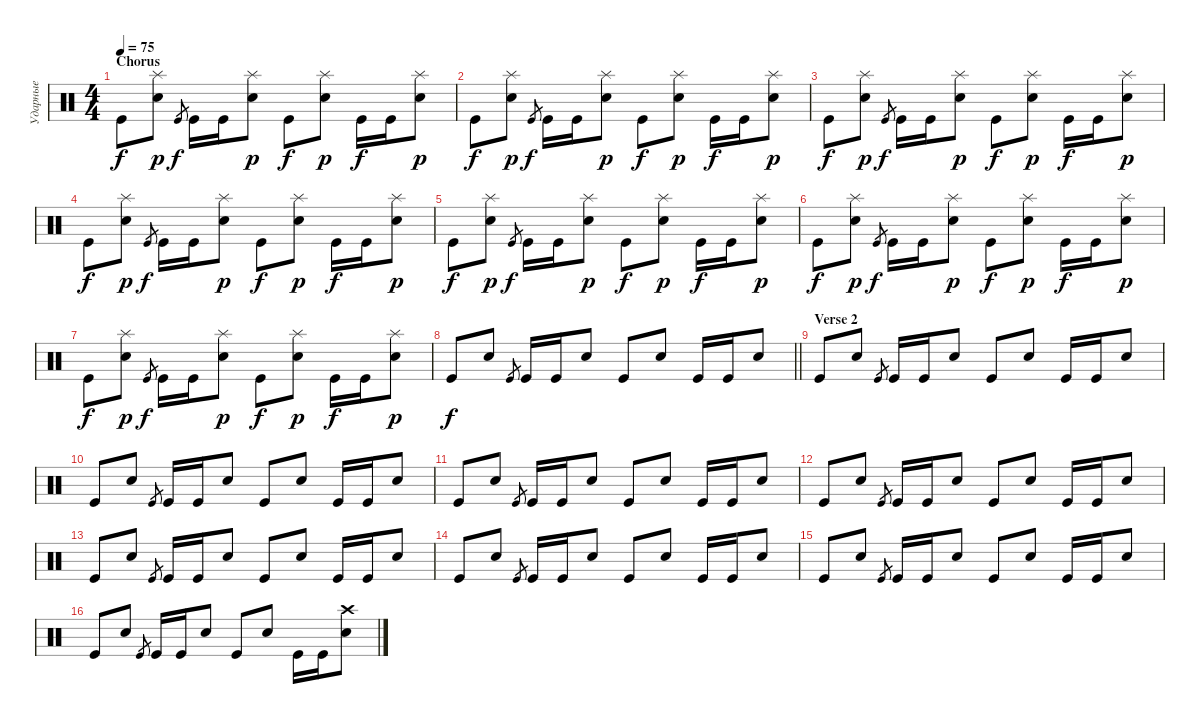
\track ("Ударные" "Ударные") {instrument percussion}
\staff {score}
\articulation defaults
\ts (4 4)
\section ("" "Chorus")
\tempo 75
\clef neutral
\ks c "Kick (hit)".8{dy f}
("Snare (hit) 2" "Splash (hit)").8{dy p} "Kick (hit)".8{gr dy f} "Kick (hit)".16 "Kick (hit)".16 ("Snare (hit) 2" "Splash (hit)").8{dy p} "Kick (hit)".8{dy f} ("Snare (hit) 2" "Splash (hit)").8{dy p} "Kick (hit)".16{dy f} "Kick (hit)".16 ("Snare (hit) 2" "Splash (hit)").8{dy p} |
"Kick (hit)".8{dy f} ("Snare (hit) 2" "Splash (hit)").8{dy p} "Kick (hit)".8{gr dy f} "Kick (hit)".16 "Kick (hit)".16 ("Snare (hit) 2" "Splash (hit)").8{dy p} "Kick (hit)".8{dy f} ("Snare (hit) 2" "Splash (hit)").8{dy p} "Kick (hit)".16{dy f} "Kick (hit)".16 ("Snare (hit) 2" "Splash (hit)").8{dy p} |
"Kick (hit)".8{dy f} ("Snare (hit) 2" "Splash (hit)").8{dy p} "Kick (hit)".8{gr dy f} "Kick (hit)".16 "Kick (hit)".16 ("Snare (hit) 2" "Splash (hit)").8{dy p} "Kick (hit)".8{dy f} ("Snare (hit) 2" "Splash (hit)").8{dy p} "Kick (hit)".16{dy f} "Kick (hit)".16 ("Snare (hit) 2" "Splash (hit)").8{dy p} |
"Kick (hit)".8{dy f} ("Snare (hit) 2" "Splash (hit)").8{dy p} "Kick (hit)".8{gr dy f} "Kick (hit)".16 "Kick (hit)".16 ("Snare (hit) 2" "Splash (hit)").8{dy p} "Kick (hit)".8{dy f} ("Snare (hit) 2" "Splash (hit)").8{dy p} "Kick (hit)".16{dy f} "Kick (hit)".16 ("Snare (hit) 2" "Splash (hit)").8{dy p} |
"Kick (hit)".8{dy f} ("Snare (hit) 2" "Splash (hit)").8{dy p} "Kick (hit)".8{gr dy f} "Kick (hit)".16 "Kick (hit)".16 ("Snare (hit) 2" "Splash (hit)").8{dy p} "Kick (hit)".8{dy f} ("Snare (hit) 2" "Splash (hit)").8{dy p} "Kick (hit)".16{dy f} "Kick (hit)".16 ("Snare (hit) 2" "Splash (hit)").8{dy p} |
"Kick (hit)".8{dy f} ("Snare (hit) 2" "Splash (hit)").8{dy p} "Kick (hit)".8{gr dy f} "Kick (hit)".16 "Kick (hit)".16 ("Snare (hit) 2" "Splash (hit)").8{dy p} "Kick (hit)".8{dy f} ("Snare (hit) 2" "Splash (hit)").8{dy p} "Kick (hit)".16{dy f} "Kick (hit)".16 ("Snare (hit) 2" "Splash (hit)").8{dy p} |
"Kick (hit)".8{dy f} ("Snare (hit) 2" "Splash (hit)").8{dy p} "Kick (hit)".8{gr dy f} "Kick (hit)".16 "Kick (hit)".16 ("Snare (hit) 2" "Splash (hit)").8{dy p} "Kick (hit)".8{dy f} ("Snare (hit) 2" "Splash (hit)").8{dy p} "Kick (hit)".16{dy f} "Kick (hit)".16 ("Snare (hit) 2" "Splash (hit)").8{dy p} |
\barLineRight lightlight "Kick (hit)".8{dy f} "Snare (hit) 2".8 "Kick (hit)".8{gr} "Kick (hit)".16 "Kick (hit)".16 "Snare (hit) 2".8 "Kick (hit)".8 "Snare (hit) 2".8 "Kick (hit)".16 "Kick (hit)".16 "Snare (hit) 2".8
|
\section ("" "Verse 2")
"Kick (hit)".8 "Snare (hit) 2".8 "Kick (hit)".8{gr} "Kick (hit)".16 "Kick (hit)".16 "Snare (hit) 2".8 "Kick (hit)".8 "Snare (hit) 2".8 "Kick (hit)".16 "Kick (hit)".16 "Snare (hit) 2".8 |
"Kick (hit)".8 "Snare (hit) 2".8 "Kick (hit)".8{gr} "Kick (hit)".16 "Kick (hit)".16 "Snare (hit) 2".8 "Kick (hit)".8 "Snare (hit) 2".8 "Kick (hit)".16 "Kick (hit)".16 "Snare (hit) 2".8 |
"Kick (hit)".8 "Snare (hit) 2".8 "Kick (hit)".8{gr} "Kick (hit)".16 "Kick (hit)".16 "Snare (hit) 2".8 "Kick (hit)".8 "Snare (hit) 2".8 "Kick (hit)".16 "Kick (hit)".16 "Snare (hit) 2".8 |
"Kick (hit)".8 "Snare (hit) 2".8 "Kick (hit)".8{gr} "Kick (hit)".16 "Kick (hit)".16 "Snare (hit) 2".8 "Kick (hit)".8 "Snare (hit) 2".8 "Kick (hit)".16 "Kick (hit)".16 "Snare (hit) 2".8 |
"Kick (hit)".8 "Snare (hit) 2".8 "Kick (hit)".8{gr} "Kick (hit)".16 "Kick (hit)".16 "Snare (hit) 2".8 "Kick (hit)".8 "Snare (hit) 2".8 "Kick (hit)".16 "Kick (hit)".16 "Snare (hit) 2".8 |
"Kick (hit)".8 "Snare (hit) 2".8 "Kick (hit)".8{gr} "Kick (hit)".16 "Kick (hit)".16 "Snare (hit) 2".8 "Kick (hit)".8 "Snare (hit) 2".8 "Kick (hit)".16 "Kick (hit)".16 "Snare (hit) 2".8 |
"Kick (hit)".8 "Snare (hit) 2".8 "Kick (hit)".8{gr} "Kick (hit)".16 "Kick (hit)".16 "Snare (hit) 2".8 "Kick (hit)".8 "Snare (hit) 2".8 "Kick (hit)".16 "Kick (hit)".16 "Snare (hit) 2".8 |
"Kick (hit)".8 "Snare (hit) 2".8 "Kick (hit)".8{gr} "Kick (hit)".16 "Kick (hit)".16 "Snare (hit) 2".8 "Kick (hit)".8 "Snare (hit) 2".8 "Kick (hit)".16 "Kick (hit)".16 ("Snare (hit) 2" "Crash high (hit)").8
